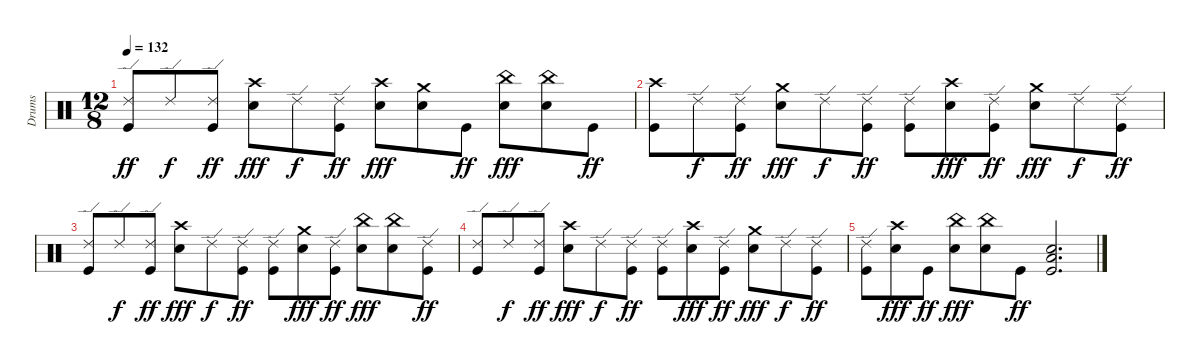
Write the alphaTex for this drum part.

\track ("Drums" "Drums") {instrument percussion}
\staff {score}
\articulation defaults
\ts (12 8)
\tempo 132
\clef neutral
\ks c
("Ride (edge) 2" "Kick (hit)").8{dy ff} "Ride (edge) 2".8{dy f} ("Ride (edge) 2" "Kick (hit)").8{dy ff} ("Crash high (hit)" "Snare (hit) 2").8{dy fff} "Ride (edge) 2".8{dy f} ("Ride (edge) 2" "Kick (hit)").8{dy ff} ("Crash high (hit)" "Snare (hit) 2").8{dy fff} ("Crash medium (hit)" "Snare (hit) 2").8 "Kick (hit)".8{dy ff} ("China (hit)" "Snare (hit) 2").8{dy fff} ("China (hit)" "Snare (hit) 2").8 "Kick (hit)".8{dy ff} |
("Crash high (hit)" "Kick (hit)").8 "Ride (edge) 2".8{dy f} ("Ride (edge) 2" "Kick (hit)").8{dy ff} ("Crash medium (hit)" "Snare (hit) 2").8{dy fff} "Ride (edge) 2".8{dy f} ("Ride (edge) 2" "Kick (hit)").8{dy ff} ("Ride (edge) 2" "Kick (hit)").8 ("Crash high (hit)" "Snare (hit) 2").8{dy fff} ("Ride (edge) 2" "Kick (hit)").8{dy ff} ("Crash medium (hit)" "Snare (hit) 2").8{dy fff} "Ride (edge) 2".8{dy f} ("Ride (edge) 2" "Kick (hit)").8{dy ff} |
("Ride (edge) 2" "Kick (hit)").8 "Ride (edge) 2".8{dy f} ("Ride (edge) 2" "Kick (hit)").8{dy ff} ("Crash high (hit)" "Snare (hit) 2").8{dy fff} "Ride (edge) 2".8{dy f} ("Ride (edge) 2" "Kick (hit)").8{dy ff} ("Ride (edge) 2" "Kick (hit)").8 ("Crash medium (hit)" "Snare (hit) 2").8{dy fff} ("Ride (edge) 2" "Kick (hit)").8{dy ff} ("China (hit)" "Snare (hit) 2").8{dy fff} ("China (hit)" "Snare (hit) 2").8 ("Ride (edge) 2" "Kick (hit)").8{dy ff} |
("Ride (edge) 2" "Kick (hit)").8 "Ride (edge) 2".8{dy f} ("Ride (edge) 2" "Kick (hit)").8{dy ff} ("Crash high (hit)" "Snare (hit) 2").8{dy fff} "Ride (edge) 2".8{dy f} ("Ride (edge) 2" "Kick (hit)").8{dy ff} ("Ride (edge) 2" "Kick (hit)").8 ("Crash high (hit)" "Snare (hit) 2").8{dy fff} ("Ride (edge) 2" "Kick (hit)").8{dy ff} ("Crash medium (hit)" "Snare (hit) 2").8{dy fff} "Ride (edge) 2".8{dy f} ("Ride (edge) 2" "Kick (hit)").8{dy ff} |
("Ride (edge) 2" "Kick (hit)").8 ("Crash high (hit)" "Snare (hit) 2").8{dy fff} "Kick (hit)".8{dy ff} ("China (hit)" "Snare (hit) 2").8{dy fff} ("China (hit)" "Snare (hit) 2").8 "Kick (hit)".8{dy ff} ("Low Floor Tom (hit)" "Snare (hit) 2" "Kick (hit)").2{d}
